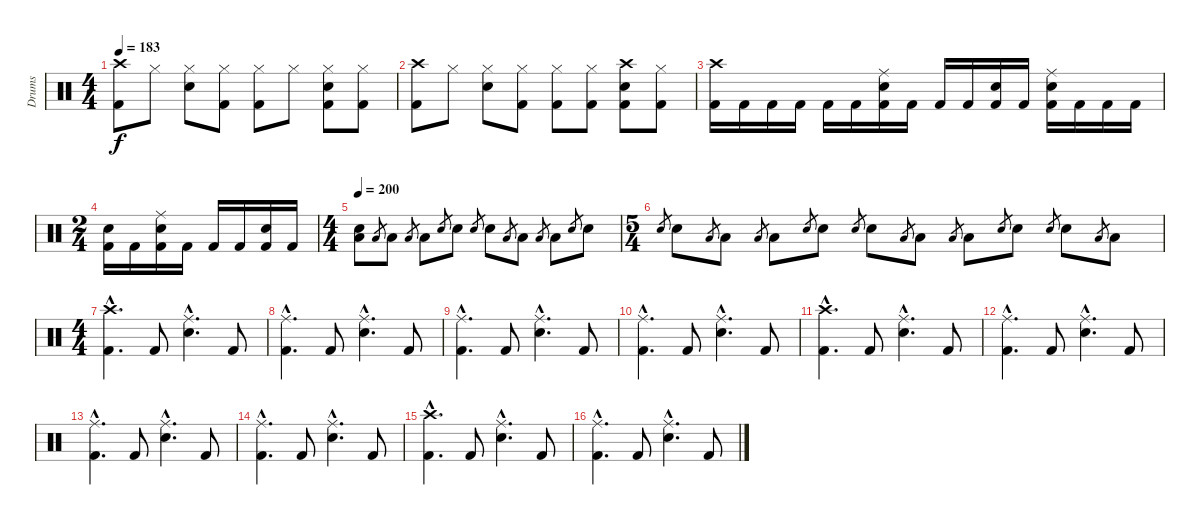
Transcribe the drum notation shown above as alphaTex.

\track ("Drums" "Drums") {instrument percussion}
\staff {score}
\articulation defaults
\ts (4 4)
\tempo 183
\clef neutral
\ks c
("Crash high (hit)" "Kick (hit) 2").8{dy f} "Hi-Hat (closed)".8 ("Hi-Hat (closed)" "Snare (hit) 2").8 ("Hi-Hat (closed)" "Kick (hit) 2").8 ("Hi-Hat (closed)" "Kick (hit) 2").8 "Hi-Hat (closed)".8 ("Hi-Hat (closed)" "Snare (hit) 2" "Kick (hit) 2").8 ("Hi-Hat (closed)" "Kick (hit) 2").8 |
("Crash high (hit)" "Kick (hit) 2").8 "Hi-Hat (closed)".8 ("Hi-Hat (closed)" "Snare (hit) 2").8 ("Hi-Hat (closed)" "Kick (hit) 2").8 ("Hi-Hat (closed)" "Kick (hit) 2").8 ("Hi-Hat (closed)" "Kick (hit) 2").8 ("Crash high (hit)" "Snare (hit) 2" "Kick (hit) 2").8 ("Hi-Hat (closed)" "Kick (hit) 2").8 |
("Crash high (hit)" "Kick (hit) 2").16 "Kick (hit) 2".16 "Kick (hit) 2".16 "Kick (hit) 2".16 "Kick (hit) 2".16 "Kick (hit) 2".16 ("Ride (middle)" "Snare (hit) 2" "Kick (hit) 2").16 "Kick (hit) 2".16 "Kick (hit) 2".16 "Kick (hit) 2".16 ("Snare (hit) 2" "Kick (hit) 2").16 "Kick (hit) 2".16 ("Ride (middle)" "Snare (hit) 2" "Kick (hit) 2").16 "Kick (hit) 2".16 "Kick (hit) 2".16 "Kick (hit) 2".16 |
\ts (2 4)
("Snare (hit) 2" "Kick (hit) 2").16 "Kick (hit) 2".16 ("Ride (middle)" "Snare (hit) 2" "Kick (hit) 2").16 "Kick (hit) 2".16 "Kick (hit) 2".16 "Kick (hit) 2".16 ("Snare (hit) 2" "Kick (hit) 2").16 "Kick (hit) 2".16 |
\ts (4 4)
\tempo 200
("Low Tom (hit)" "Snare (hit) 2").8 "Low Tom (hit)".8{gr} "Low Tom (hit)".8 "Low Tom (hit)".8{gr} "Low Tom (hit)".8 "Snare (hit) 2".8{gr} "Snare (hit) 2".8 "Snare (hit) 2".8{gr} "Snare (hit) 2".8 "Low Tom (hit)".8{gr} "Low Tom (hit)".8 "Low Tom (hit)".8{gr} "Low Tom (hit)".8 "Snare (hit) 2".8{gr} "Snare (hit) 2".8 |
\ts (5 4)
"Snare (hit) 2".8{gr} "Snare (hit) 2".8 "Low Tom (hit)".8{gr} "Low Tom (hit)".8 "Low Tom (hit)".8{gr} "Low Tom (hit)".8 "Snare (hit) 2".8{gr} "Snare (hit) 2".8 "Snare (hit) 2".8{gr} "Snare (hit) 2".8 "Low Tom (hit)".8{gr} "Low Tom (hit)".8 "Low Tom (hit)".8{gr} "Low Tom (hit)".8 "Snare (hit) 2".8{gr} "Snare (hit) 2".8 "Snare (hit) 2".8{gr} "Snare (hit) 2".8 "Low Tom (hit)".8{gr} "Low Tom (hit)".8 |
\ts (4 4)
("Crash high (hit)"{hac} "Kick (hit) 2"{hac}).4{d} "Kick (hit) 2".8 ("Ride (middle)"{hac} "Snare (hit) 2"{hac}).4{d} "Kick (hit) 2".8 |
("Ride (middle)"{hac} "Kick (hit) 2"{hac}).4{d} "Kick (hit) 2".8 ("Ride (middle)"{hac} "Snare (hit) 2"{hac}).4{d} "Kick (hit) 2".8 |
("Ride (middle)"{hac} "Kick (hit) 2"{hac}).4{d} "Kick (hit) 2".8 ("Ride (middle)"{hac} "Snare (hit) 2"{hac}).4{d} "Kick (hit) 2".8 |
("Ride (middle)"{hac} "Kick (hit) 2"{hac}).4{d} "Kick (hit) 2".8 ("Ride (middle)"{hac} "Snare (hit) 2"{hac}).4{d} "Kick (hit) 2".8 |
("Crash high (hit)"{hac} "Kick (hit) 2"{hac}).4{d} "Kick (hit) 2".8 ("Ride (middle)"{hac} "Snare (hit) 2"{hac}).4{d} "Kick (hit) 2".8 |
("Ride (middle)"{hac} "Kick (hit) 2"{hac}).4{d} "Kick (hit) 2".8 ("Ride (middle)"{hac} "Snare (hit) 2"{hac}).4{d} "Kick (hit) 2".8 |
("Ride (middle)"{hac} "Kick (hit) 2"{hac}).4{d} "Kick (hit) 2".8 ("Ride (middle)"{hac} "Snare (hit) 2"{hac}).4{d} "Kick (hit) 2".8 |
("Ride (middle)"{hac} "Kick (hit) 2"{hac}).4{d} "Kick (hit) 2".8 ("Ride (middle)"{hac} "Snare (hit) 2"{hac}).4{d} "Kick (hit) 2".8 |
("Crash high (hit)"{hac} "Kick (hit) 2"{hac}).4{d} "Kick (hit) 2".8 ("Ride (middle)"{hac} "Snare (hit) 2"{hac}).4{d} "Kick (hit) 2".8 |
("Ride (middle)"{hac} "Kick (hit) 2"{hac}).4{d} "Kick (hit) 2".8 ("Ride (middle)"{hac} "Snare (hit) 2"{hac}).4{d} "Kick (hit) 2".8
